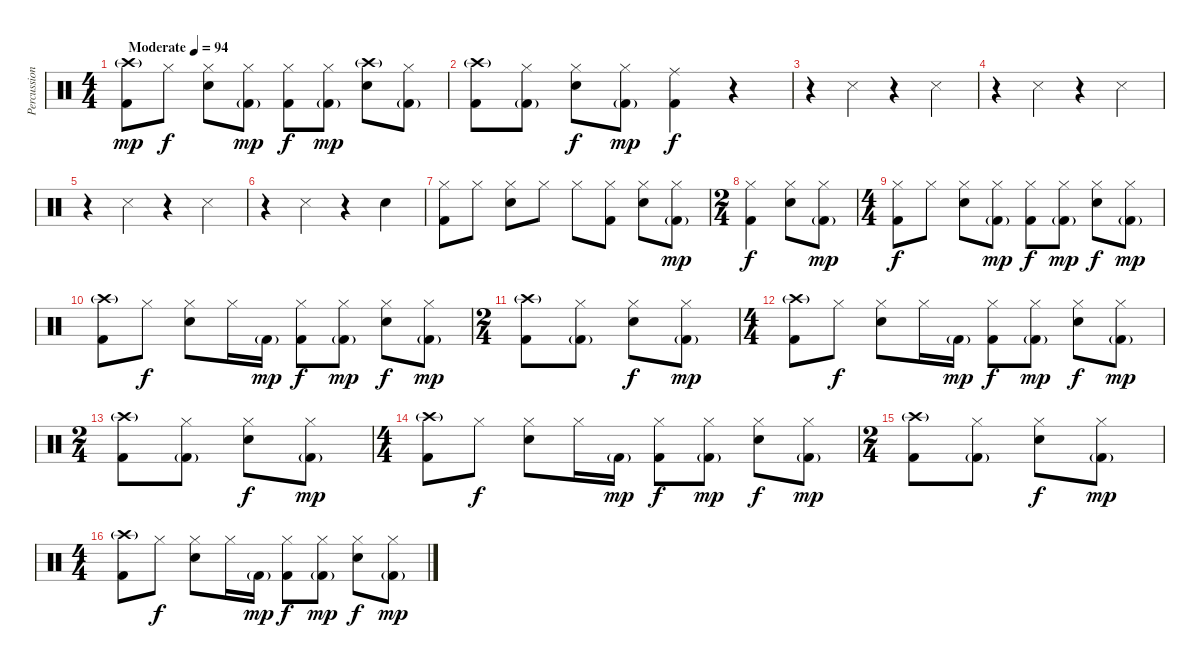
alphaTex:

\track ("Percussion" "Percussion") {instrument percussion}
\staff {score}
\articulation defaults
\ts (4 4)
\tempo (94 "Moderate")
\clef neutral
\ks c
("Crash high (hit)"{g} "Kick (hit) 2").8{dy mp} "Hi-Hat (closed)".8{dy f} ("Hi-Hat (closed)" "Snare (hit) 2").8 ("Hi-Hat (closed)" "Kick (hit) 2"{g}).8{dy mp} ("Hi-Hat (closed)" "Kick (hit) 2").8{dy f} ("Hi-Hat (closed)" "Kick (hit) 2"{g}).8{dy mp} ("Crash high (hit)"{g} "Snare (hit) 2").8 ("Hi-Hat (closed)" "Kick (hit) 2"{g}).8 |
("Crash high (hit)"{g} "Kick (hit) 2").8 ("Hi-Hat (closed)" "Kick (hit) 2"{g}).8 ("Hi-Hat (closed)" "Snare (hit) 2").8{dy f} ("Hi-Hat (closed)" "Kick (hit) 2"{g}).8{dy mp} ("Ride (middle)" "Kick (hit) 2").4{dy f} r.4 |
r.4 "Snare (side stick) 3".4 r.4 "Snare (side stick) 3".4 |
r.4 "Snare (side stick) 3".4 r.4 "Snare (side stick) 3".4 |
r.4 "Snare (side stick) 3".4 r.4 "Snare (side stick) 3".4 |
r.4 "Snare (side stick) 3".4 r.4 "Snare (hit) 2".4 |
("Hi-Hat (closed)" "Kick (hit) 2").8 "Hi-Hat (closed)".8 ("Hi-Hat (closed)" "Snare (hit) 2").8 "Hi-Hat (closed)".8 "Hi-Hat (closed)".8 ("Hi-Hat (closed)" "Kick (hit) 2").8 ("Hi-Hat (closed)" "Snare (hit) 2").8 ("Hi-Hat (closed)" "Kick (hit) 2"{g}).8{dy mp} |
\ts (2 4)
("Hi-Hat (closed)" "Kick (hit) 2").4{dy f} ("Hi-Hat (closed)" "Snare (hit) 2").8 ("Hi-Hat (closed)" "Kick (hit) 2"{g}).8{dy mp} |
\ts (4 4)
("Hi-Hat (closed)" "Kick (hit) 2").8{dy f} "Hi-Hat (closed)".8 ("Hi-Hat (closed)" "Snare (hit) 2").8 ("Hi-Hat (closed)" "Kick (hit) 2"{g}).8{dy mp} ("Hi-Hat (closed)" "Kick (hit) 2").8{dy f} ("Hi-Hat (closed)" "Kick (hit) 2"{g}).8{dy mp} ("Hi-Hat (closed)" "Snare (hit) 2").8{dy f} ("Hi-Hat (closed)" "Kick (hit) 2"{g}).8{dy mp} |
("Crash high (hit)"{g} "Kick (hit) 2").8 "Hi-Hat (closed)".8{dy f} ("Hi-Hat (closed)" "Snare (hit) 2").8 "Hi-Hat (closed)".16 "Kick (hit) 2"{g}.16{dy mp} ("Hi-Hat (closed)" "Kick (hit) 2").8{dy f} ("Hi-Hat (closed)" "Kick (hit) 2"{g}).8{dy mp} ("Hi-Hat (closed)" "Snare (hit) 2").8{dy f} ("Hi-Hat (closed)" "Kick (hit) 2"{g}).8{dy mp} |
\ts (2 4)
("Crash high (hit)"{g} "Kick (hit) 2").8 ("Hi-Hat (closed)" "Kick (hit) 2"{g}).8 ("Hi-Hat (closed)" "Snare (hit) 2").8{dy f} ("Hi-Hat (closed)" "Kick (hit) 2"{g}).8{dy mp} |
\ts (4 4)
("Crash high (hit)"{g} "Kick (hit) 2").8 "Hi-Hat (closed)".8{dy f} ("Hi-Hat (closed)" "Snare (hit) 2").8 "Hi-Hat (closed)".16 "Kick (hit) 2"{g}.16{dy mp} ("Hi-Hat (closed)" "Kick (hit) 2").8{dy f} ("Hi-Hat (closed)" "Kick (hit) 2"{g}).8{dy mp} ("Hi-Hat (closed)" "Snare (hit) 2").8{dy f} ("Hi-Hat (closed)" "Kick (hit) 2"{g}).8{dy mp} |
\ts (2 4)
("Crash high (hit)"{g} "Kick (hit) 2").8 ("Hi-Hat (closed)" "Kick (hit) 2"{g}).8 ("Hi-Hat (closed)" "Snare (hit) 2").8{dy f} ("Hi-Hat (closed)" "Kick (hit) 2"{g}).8{dy mp} |
\ts (4 4)
("Crash high (hit)"{g} "Kick (hit) 2").8 "Hi-Hat (closed)".8{dy f} ("Hi-Hat (closed)" "Snare (hit) 2").8 "Hi-Hat (closed)".16 "Kick (hit) 2"{g}.16{dy mp} ("Hi-Hat (closed)" "Kick (hit) 2").8{dy f} ("Hi-Hat (closed)" "Kick (hit) 2"{g}).8{dy mp} ("Hi-Hat (closed)" "Snare (hit) 2").8{dy f} ("Hi-Hat (closed)" "Kick (hit) 2"{g}).8{dy mp} |
\ts (2 4)
("Crash high (hit)"{g} "Kick (hit) 2").8 ("Hi-Hat (closed)" "Kick (hit) 2"{g}).8 ("Hi-Hat (closed)" "Snare (hit) 2").8{dy f} ("Hi-Hat (closed)" "Kick (hit) 2"{g}).8{dy mp} |
\ts (4 4)
("Crash high (hit)"{g} "Kick (hit) 2").8 "Hi-Hat (closed)".8{dy f} ("Hi-Hat (closed)" "Snare (hit) 2").8 "Hi-Hat (closed)".16 "Kick (hit) 2"{g}.16{dy mp} ("Hi-Hat (closed)" "Kick (hit) 2").8{dy f} ("Hi-Hat (closed)" "Kick (hit) 2"{g}).8{dy mp} ("Hi-Hat (closed)" "Snare (hit) 2").8{dy f} ("Hi-Hat (closed)" "Kick (hit) 2"{g}).8{dy mp}
